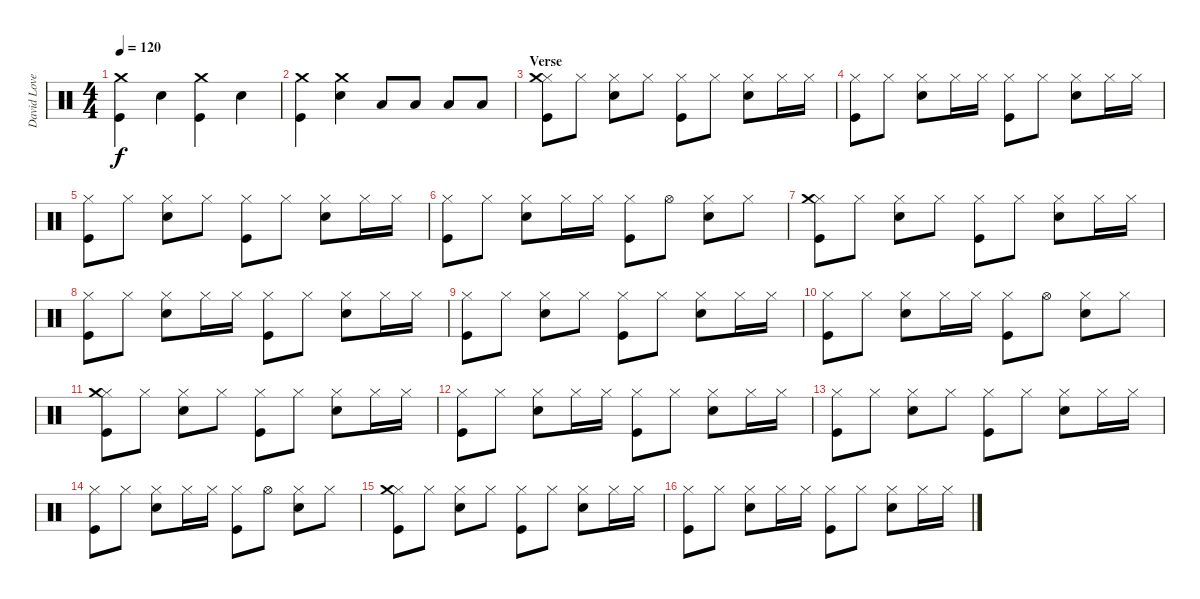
\track ("David Lovering" "David Love") {instrument percussion}
\staff {score}
\articulation defaults
\ts (4 4)
\section ("" "")
\tempo 120
\clef neutral
\ks c
("Crash medium (hit)" "Kick (hit)").4{dy f} "Snare (hit) 2".4 ("Crash medium (hit)" "Kick (hit)").4 "Snare (hit) 2".4 |
("Crash medium (hit)" "Kick (hit)").4 ("Crash medium (hit)" "Snare (hit) 2").4 "Low Tom (hit)".8 "Low Tom (hit)".8 "Low Floor Tom (hit)".8 "Low Floor Tom (hit)".8 |
\section ("" "Verse")
("Hi-Hat (closed)" "Crash medium (hit)" "Kick (hit)").8 "Hi-Hat (closed)".8 ("Hi-Hat (closed)" "Snare (hit) 2").8 "Hi-Hat (closed)".8 ("Hi-Hat (closed)" "Kick (hit)").8 "Hi-Hat (closed)".8 ("Hi-Hat (closed)" "Snare (hit) 2").8 "Hi-Hat (closed)".16 "Hi-Hat (closed)".16 |
("Hi-Hat (closed)" "Kick (hit)").8 "Hi-Hat (closed)".8 ("Hi-Hat (closed)" "Snare (hit) 2").8 "Hi-Hat (closed)".16 "Hi-Hat (closed)".16 ("Hi-Hat (closed)" "Kick (hit)").8 "Hi-Hat (closed)".8 ("Hi-Hat (closed)" "Snare (hit) 2").8 "Hi-Hat (closed)".16 "Hi-Hat (closed)".16 |
("Hi-Hat (closed)" "Kick (hit)").8 "Hi-Hat (closed)".8 ("Hi-Hat (closed)" "Snare (hit) 2").8 "Hi-Hat (closed)".8 ("Hi-Hat (closed)" "Kick (hit)").8 "Hi-Hat (closed)".8 ("Hi-Hat (closed)" "Snare (hit) 2").8 "Hi-Hat (closed)".16 "Hi-Hat (closed)".16 |
("Hi-Hat (closed)" "Kick (hit)").8 "Hi-Hat (closed)".8 ("Hi-Hat (closed)" "Snare (hit) 2").8 "Hi-Hat (closed)".16 "Hi-Hat (closed)".16 ("Hi-Hat (closed)" "Kick (hit)").8 "Hi-Hat (open)".8 ("Hi-Hat (closed)" "Snare (hit) 2").8 "Hi-Hat (closed)".8 |
("Hi-Hat (closed)" "Crash medium (hit)" "Kick (hit)").8 "Hi-Hat (closed)".8 ("Hi-Hat (closed)" "Snare (hit) 2").8 "Hi-Hat (closed)".8 ("Hi-Hat (closed)" "Kick (hit)").8 "Hi-Hat (closed)".8 ("Hi-Hat (closed)" "Snare (hit) 2").8 "Hi-Hat (closed)".16 "Hi-Hat (closed)".16 |
("Hi-Hat (closed)" "Kick (hit)").8 "Hi-Hat (closed)".8 ("Hi-Hat (closed)" "Snare (hit) 2").8 "Hi-Hat (closed)".16 "Hi-Hat (closed)".16 ("Hi-Hat (closed)" "Kick (hit)").8 "Hi-Hat (closed)".8 ("Hi-Hat (closed)" "Snare (hit) 2").8 "Hi-Hat (closed)".16 "Hi-Hat (closed)".16 |
("Hi-Hat (closed)" "Kick (hit)").8 "Hi-Hat (closed)".8 ("Hi-Hat (closed)" "Snare (hit) 2").8 "Hi-Hat (closed)".8 ("Hi-Hat (closed)" "Kick (hit)").8 "Hi-Hat (closed)".8 ("Hi-Hat (closed)" "Snare (hit) 2").8 "Hi-Hat (closed)".16 "Hi-Hat (closed)".16 |
("Hi-Hat (closed)" "Kick (hit)").8 "Hi-Hat (closed)".8 ("Hi-Hat (closed)" "Snare (hit) 2").8 "Hi-Hat (closed)".16 "Hi-Hat (closed)".16 ("Hi-Hat (closed)" "Kick (hit)").8 "Hi-Hat (open)".8 ("Hi-Hat (closed)" "Snare (hit) 2").8 "Hi-Hat (closed)".8 |
("Hi-Hat (closed)" "Crash medium (hit)" "Kick (hit)").8 "Hi-Hat (closed)".8 ("Hi-Hat (closed)" "Snare (hit) 2").8 "Hi-Hat (closed)".8 ("Hi-Hat (closed)" "Kick (hit)").8 "Hi-Hat (closed)".8 ("Hi-Hat (closed)" "Snare (hit) 2").8 "Hi-Hat (closed)".16 "Hi-Hat (closed)".16 |
("Hi-Hat (closed)" "Kick (hit)").8 "Hi-Hat (closed)".8 ("Hi-Hat (closed)" "Snare (hit) 2").8 "Hi-Hat (closed)".16 "Hi-Hat (closed)".16 ("Hi-Hat (closed)" "Kick (hit)").8 "Hi-Hat (closed)".8 ("Hi-Hat (closed)" "Snare (hit) 2").8 "Hi-Hat (closed)".16 "Hi-Hat (closed)".16 |
("Hi-Hat (closed)" "Kick (hit)").8 "Hi-Hat (closed)".8 ("Hi-Hat (closed)" "Snare (hit) 2").8 "Hi-Hat (closed)".8 ("Hi-Hat (closed)" "Kick (hit)").8 "Hi-Hat (closed)".8 ("Hi-Hat (closed)" "Snare (hit) 2").8 "Hi-Hat (closed)".16 "Hi-Hat (closed)".16 |
("Hi-Hat (closed)" "Kick (hit)").8 "Hi-Hat (closed)".8 ("Hi-Hat (closed)" "Snare (hit) 2").8 "Hi-Hat (closed)".16 "Hi-Hat (closed)".16 ("Hi-Hat (closed)" "Kick (hit)").8 "Hi-Hat (open)".8 ("Hi-Hat (closed)" "Snare (hit) 2").8 "Hi-Hat (closed)".8 |
("Hi-Hat (closed)" "Crash medium (hit)" "Kick (hit)").8 "Hi-Hat (closed)".8 ("Hi-Hat (closed)" "Snare (hit) 2").8 "Hi-Hat (closed)".8 ("Hi-Hat (closed)" "Kick (hit)").8 "Hi-Hat (closed)".8 ("Hi-Hat (closed)" "Snare (hit) 2").8 "Hi-Hat (closed)".16 "Hi-Hat (closed)".16 |
("Hi-Hat (closed)" "Kick (hit)").8 "Hi-Hat (closed)".8 ("Hi-Hat (closed)" "Snare (hit) 2").8 "Hi-Hat (closed)".16 "Hi-Hat (closed)".16 ("Hi-Hat (closed)" "Kick (hit)").8 "Hi-Hat (closed)".8 ("Hi-Hat (closed)" "Snare (hit) 2").8 "Hi-Hat (closed)".16 "Hi-Hat (closed)".16
